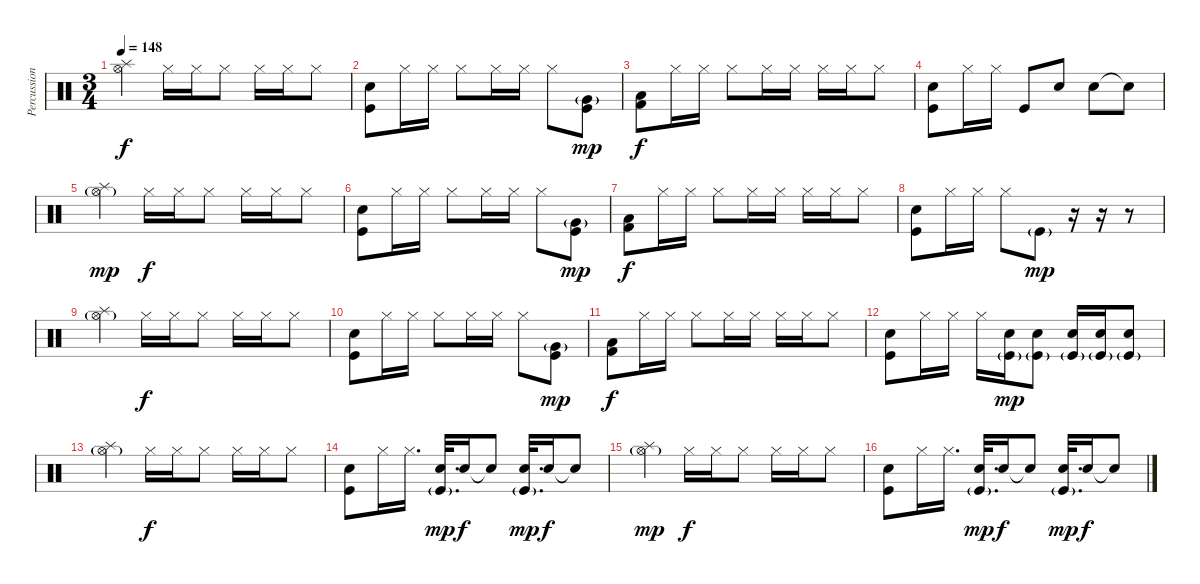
\track ("Percussion" "Percussion") {instrument percussion}
\staff {score}
\articulation defaults
\ts (3 4)
\tempo 148
\clef neutral
\ks c
("Hi-Hat (open)" "Splash (hit)").4{dy f} "Hi-Hat (closed)".16 "Hi-Hat (closed)".16 "Hi-Hat (closed)".8 "Hi-Hat (closed)".16 "Hi-Hat (closed)".16 "Hi-Hat (closed)".8 |
("Snare (hit) 2" "Kick (hit)").8 "Hi-Hat (closed)".16 "Hi-Hat (closed)".16 "Hi-Hat (closed)".8 "Hi-Hat (closed)".16 "Hi-Hat (closed)".16 "Hi-Hat (closed)".8 ("Very Low Tom (hit)"{g} "Kick (hit)").8{dy mp} |
("Low Floor Tom (hit)" "Kick (hit) 2").8{dy f} "Hi-Hat (closed)".16 "Hi-Hat (closed)".16 "Hi-Hat (closed)".8 "Hi-Hat (closed)".16 "Hi-Hat (closed)".16 "Hi-Hat (closed)".16 "Hi-Hat (closed)".16 "Hi-Hat (closed)".8 |
("Snare (hit) 2" "Kick (hit)").8 "Hi-Hat (closed)".16 "Hi-Hat (closed)".16 "Kick (hit)".8 "Snare (hit) 2".8 "Snare (hit) 2".8 "Snare (hit) 2"{t}.8 |
("Hi-Hat (open)"{g} "Splash (hit)").4{dy mp} "Hi-Hat (closed)".16{dy f} "Hi-Hat (closed)".16 "Hi-Hat (closed)".8 "Hi-Hat (closed)".16 "Hi-Hat (closed)".16 "Hi-Hat (closed)".8 |
("Snare (hit) 2" "Kick (hit)").8 "Hi-Hat (closed)".16 "Hi-Hat (closed)".16 "Hi-Hat (closed)".8 "Hi-Hat (closed)".16 "Hi-Hat (closed)".16 "Hi-Hat (closed)".8 ("Very Low Tom (hit)"{g} "Kick (hit)").8{dy mp} |
("Low Floor Tom (hit)" "Kick (hit) 2").8{dy f} "Hi-Hat (closed)".16 "Hi-Hat (closed)".16 "Hi-Hat (closed)".8 "Hi-Hat (closed)".16 "Hi-Hat (closed)".16 "Hi-Hat (closed)".16 "Hi-Hat (closed)".16 "Hi-Hat (closed)".8 |
("Snare (hit) 2" "Kick (hit)").8 "Hi-Hat (closed)".16 "Hi-Hat (closed)".16 "Hi-Hat (closed)".8 "Kick (hit)"{g}.8{dy mp} r.16 r.16 r.8 |
("Hi-Hat (open)"{g} "Splash (hit)").4 "Hi-Hat (closed)".16{dy f} "Hi-Hat (closed)".16 "Hi-Hat (closed)".8 "Hi-Hat (closed)".16 "Hi-Hat (closed)".16 "Hi-Hat (closed)".8 |
("Snare (hit) 2" "Kick (hit)").8 "Hi-Hat (closed)".16 "Hi-Hat (closed)".16 "Hi-Hat (closed)".8 "Hi-Hat (closed)".16 "Hi-Hat (closed)".16 "Hi-Hat (closed)".8 ("Very Low Tom (hit)"{g} "Kick (hit)").8{dy mp} |
("Low Floor Tom (hit)" "Kick (hit) 2").8{dy f} "Hi-Hat (closed)".16 "Hi-Hat (closed)".16 "Hi-Hat (closed)".8 "Hi-Hat (closed)".16 "Hi-Hat (closed)".16 "Hi-Hat (closed)".16 "Hi-Hat (closed)".16 "Hi-Hat (closed)".8 |
("Snare (hit) 2" "Kick (hit)").8 "Hi-Hat (closed)".16 "Hi-Hat (closed)".16 "Hi-Hat (closed)".16 ("Snare (hit) 2" "Kick (hit)"{g}).16{dy mp} ("Snare (hit) 2" "Kick (hit)"{g}).8 ("Snare (hit) 2" "Kick (hit)"{g}).16 ("Snare (hit) 2" "Kick (hit)"{g}).16 ("Snare (hit) 2" "Kick (hit)"{g}).8 |
("Hi-Hat (open)"{g} "Splash (hit)").4 "Hi-Hat (closed)".16{dy f} "Hi-Hat (closed)".16 "Hi-Hat (closed)".8 "Hi-Hat (closed)".16 "Hi-Hat (closed)".16 "Hi-Hat (closed)".8 |
("Snare (hit) 2" "Kick (hit)").8 "Hi-Hat (closed)".16 "Hi-Hat (closed)".16{d} ("Snare (hit) 2" "Kick (hit)"{g}).32{d dy mp} "Snare (hit) 2".16{dy f} "Snare (hit) 2"{t}.8 ("Snare (hit) 2" "Kick (hit)"{g}).32{d dy mp} "Snare (hit) 2".16{dy f} "Snare (hit) 2"{t}.8 |
("Hi-Hat (open)"{g} "Splash (hit)").4{dy mp} "Hi-Hat (closed)".16{dy f} "Hi-Hat (closed)".16 "Hi-Hat (closed)".8 "Hi-Hat (closed)".16 "Hi-Hat (closed)".16 "Hi-Hat (closed)".8 |
("Snare (hit) 2" "Kick (hit)").8 "Hi-Hat (closed)".16 "Hi-Hat (closed)".16{d} ("Snare (hit) 2" "Kick (hit)"{g}).32{d dy mp} "Snare (hit) 2".16{dy f} "Snare (hit) 2"{t}.8 ("Snare (hit) 2" "Kick (hit)"{g}).32{d dy mp} "Snare (hit) 2".16{dy f} "Snare (hit) 2"{t}.8
